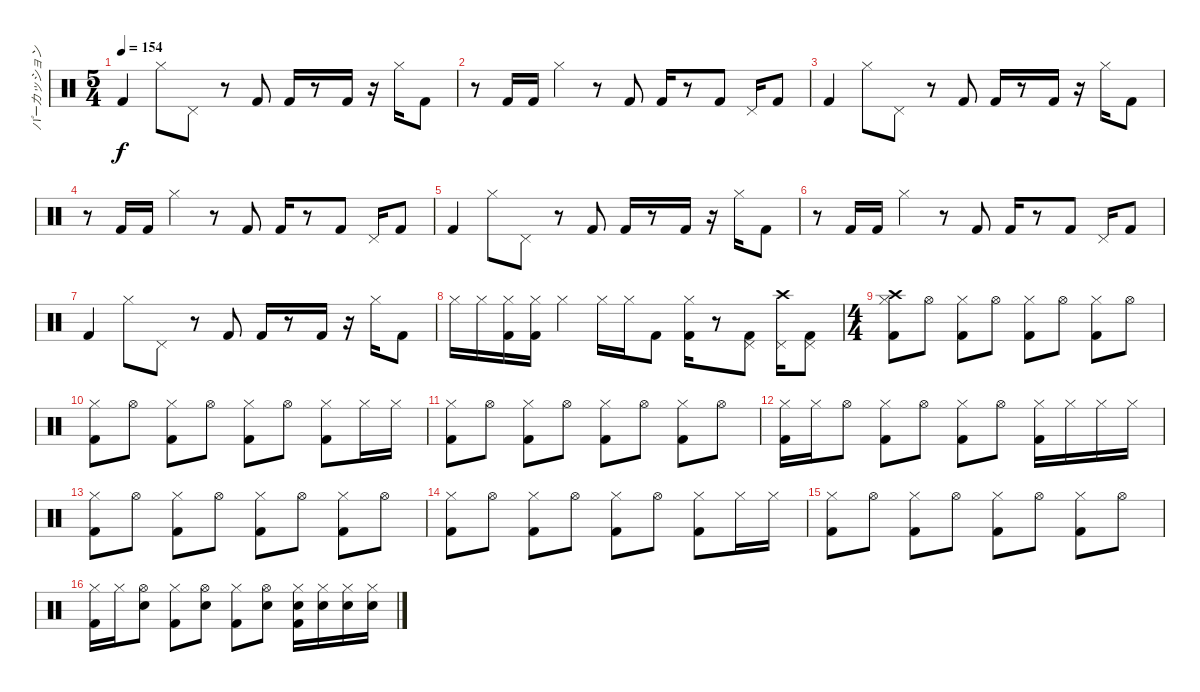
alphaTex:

\track ("パーカッション" "パーカッション") {instrument percussion}
\staff {score}
\articulation defaults
\ts (5 4)
\tempo 154
\clef neutral
\ks c "Kick (hit) 2".4{dy f} "Hi-Hat (closed)".8 "Pedal Hi-Hat (hit)".8
r.8 "Kick (hit) 2".8 "Kick (hit) 2".16 r.8 "Kick (hit) 2".16 r.16 "Hi-Hat (closed)".16 "Kick (hit) 2".8 |
r.8 "Kick (hit) 2".16 "Kick (hit) 2".16 "Hi-Hat (closed)".4 r.8 "Kick (hit) 2".8 "Kick (hit) 2".16 r.8 "Kick (hit) 2".8 "Pedal Hi-Hat (hit)".16 "Kick (hit) 2".8 |
"Kick (hit) 2".4 "Hi-Hat (closed)".8 "Pedal Hi-Hat (hit)".8 r.8 "Kick (hit) 2".8 "Kick (hit) 2".16 r.8 "Kick (hit) 2".16 r.16 "Hi-Hat (closed)".16 "Kick (hit) 2".8 |
r.8 "Kick (hit) 2".16 "Kick (hit) 2".16 "Hi-Hat (closed)".4 r.8 "Kick (hit) 2".8 "Kick (hit) 2".16 r.8 "Kick (hit) 2".8 "Pedal Hi-Hat (hit)".16 "Kick (hit) 2".8 |
"Kick (hit) 2".4 "Hi-Hat (closed)".8 "Pedal Hi-Hat (hit)".8 r.8 "Kick (hit) 2".8 "Kick (hit) 2".16 r.8 "Kick (hit) 2".16 r.16 "Hi-Hat (closed)".16 "Kick (hit) 2".8 |
r.8 "Kick (hit) 2".16 "Kick (hit) 2".16 "Hi-Hat (closed)".4 r.8 "Kick (hit) 2".8 "Kick (hit) 2".16 r.8 "Kick (hit) 2".8 "Pedal Hi-Hat (hit)".16 "Kick (hit) 2".8 |
"Kick (hit) 2".4 "Hi-Hat (closed)".8 "Pedal Hi-Hat (hit)".8 r.8 "Kick (hit) 2".8 "Kick (hit) 2".16 r.8 "Kick (hit) 2".16 r.16 "Hi-Hat (closed)".16 "Kick (hit) 2".8 |
"Hi-Hat (closed)".16 "Hi-Hat (closed)".16 ("Hi-Hat (closed)" "Kick (hit) 2").16 ("Hi-Hat (closed)" "Kick (hit) 2").16 "Hi-Hat (closed)".4 "Hi-Hat (closed)".16 "Hi-Hat (closed)".16 "Kick (hit) 2".8 ("Hi-Hat (closed)" "Kick (hit) 2").16 r.8 ("Pedal Hi-Hat (hit)" "Kick (hit) 2").8 ("Crash high (hit)" "Pedal Hi-Hat (hit)").16 ("Pedal Hi-Hat (hit)" "Kick (hit) 2").8 |
\ts (4 4)
("Crash high (hit)" "Hi-Hat (closed)" "Kick (hit) 2").8 "Hi-Hat (open)".8 ("Hi-Hat (closed)" "Kick (hit) 2").8 "Hi-Hat (open)".8 ("Hi-Hat (closed)" "Kick (hit) 2").8 "Hi-Hat (open)".8 ("Hi-Hat (closed)" "Kick (hit) 2").8 "Hi-Hat (open)".8 |
("Hi-Hat (closed)" "Kick (hit) 2").8 "Hi-Hat (open)".8 ("Hi-Hat (closed)" "Kick (hit) 2").8 "Hi-Hat (open)".8 ("Hi-Hat (closed)" "Kick (hit) 2").8 "Hi-Hat (open)".8 ("Hi-Hat (closed)" "Kick (hit) 2").8 "Hi-Hat (closed)".16 "Hi-Hat (closed)".16 |
("Hi-Hat (closed)" "Kick (hit) 2").8 "Hi-Hat (open)".8 ("Hi-Hat (closed)" "Kick (hit) 2").8 "Hi-Hat (open)".8 ("Hi-Hat (closed)" "Kick (hit) 2").8 "Hi-Hat (open)".8 ("Hi-Hat (closed)" "Kick (hit) 2").8 "Hi-Hat (open)".8 |
("Hi-Hat (closed)" "Kick (hit) 2").16 "Hi-Hat (closed)".16 "Hi-Hat (open)".8 ("Hi-Hat (closed)" "Kick (hit) 2").8 "Hi-Hat (open)".8 ("Hi-Hat (closed)" "Kick (hit) 2").8 "Hi-Hat (open)".8 ("Hi-Hat (closed)" "Kick (hit) 2").16 "Hi-Hat (closed)".16 "Hi-Hat (closed)".16 "Hi-Hat (closed)".16 |
("Hi-Hat (closed)" "Kick (hit) 2").8 "Hi-Hat (open)".8 ("Hi-Hat (closed)" "Kick (hit) 2").8 "Hi-Hat (open)".8 ("Hi-Hat (closed)" "Kick (hit) 2").8 "Hi-Hat (open)".8 ("Hi-Hat (closed)" "Kick (hit) 2").8 "Hi-Hat (open)".8 |
("Hi-Hat (closed)" "Kick (hit) 2").8 "Hi-Hat (open)".8 ("Hi-Hat (closed)" "Kick (hit) 2").8 "Hi-Hat (open)".8 ("Hi-Hat (closed)" "Kick (hit) 2").8 "Hi-Hat (open)".8 ("Hi-Hat (closed)" "Kick (hit) 2").8 "Hi-Hat (closed)".16 "Hi-Hat (closed)".16 |
("Hi-Hat (closed)" "Kick (hit) 2").8 "Hi-Hat (open)".8 ("Hi-Hat (closed)" "Kick (hit) 2").8 "Hi-Hat (open)".8 ("Hi-Hat (closed)" "Kick (hit) 2").8 "Hi-Hat (open)".8 ("Hi-Hat (closed)" "Kick (hit) 2").8 "Hi-Hat (open)".8 |
("Hi-Hat (closed)" "Kick (hit) 2").16 "Hi-Hat (closed)".16 ("Hi-Hat (open)" "Snare (hit) 2").8 ("Hi-Hat (closed)" "Kick (hit) 2").8 ("Hi-Hat (open)" "Snare (hit) 2").8 ("Hi-Hat (closed)" "Kick (hit) 2").8 ("Hi-Hat (open)" "Snare (hit) 2").8 ("Hi-Hat (closed)" "Snare (hit) 2" "Kick (hit) 2").16 ("Hi-Hat (closed)" "Snare (hit) 2").16 ("Hi-Hat (closed)" "Snare (hit) 2").16 ("Hi-Hat (closed)" "Snare (hit) 2").16
